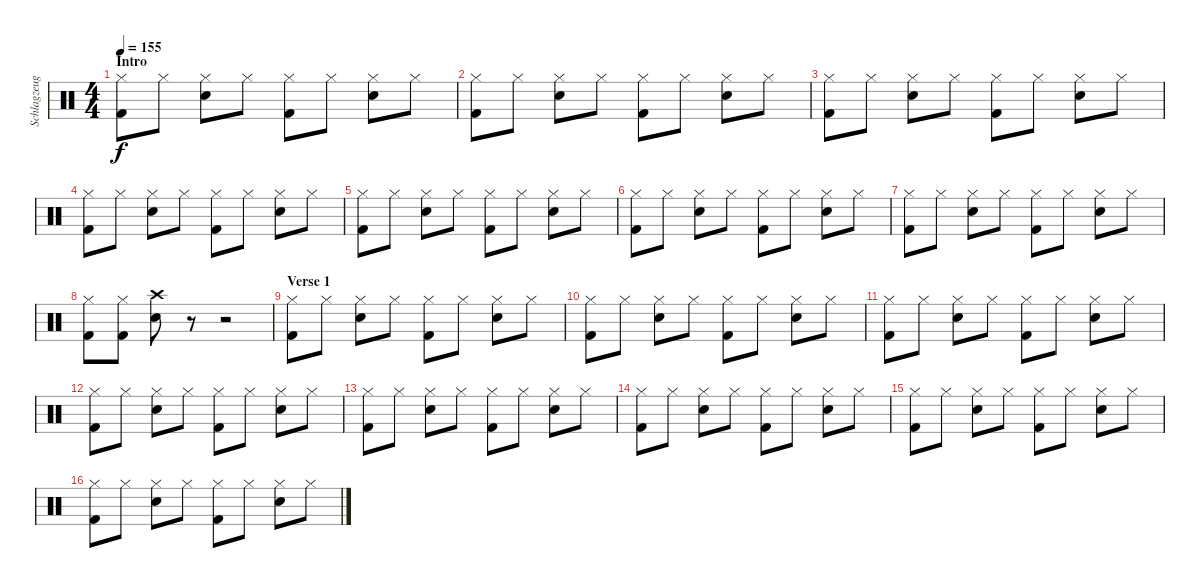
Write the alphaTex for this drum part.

\track ("Schlagzeug - Bela B." "Schlagzeug") {instrument percussion}
\staff {score}
\articulation defaults
\ts (4 4)
\section ("" "Intro")
\tempo 155
\clef neutral
\ks c
("Hi-Hat (closed)" "Kick (hit) 2").8{dy f} "Hi-Hat (closed)".8 ("Hi-Hat (closed)" "Snare (hit) 2").8 "Hi-Hat (closed)".8 ("Hi-Hat (closed)" "Kick (hit) 2").8 "Hi-Hat (closed)".8 ("Hi-Hat (closed)" "Snare (hit) 2").8 "Hi-Hat (closed)".8 |
("Hi-Hat (closed)" "Kick (hit) 2").8 "Hi-Hat (closed)".8 ("Hi-Hat (closed)" "Snare (hit) 2").8 "Hi-Hat (closed)".8 ("Hi-Hat (closed)" "Kick (hit) 2").8 "Hi-Hat (closed)".8 ("Hi-Hat (closed)" "Snare (hit) 2").8 "Hi-Hat (closed)".8 |
("Hi-Hat (closed)" "Kick (hit) 2").8 "Hi-Hat (closed)".8 ("Hi-Hat (closed)" "Snare (hit) 2").8 "Hi-Hat (closed)".8 ("Hi-Hat (closed)" "Kick (hit) 2").8 "Hi-Hat (closed)".8 ("Hi-Hat (closed)" "Snare (hit) 2").8 "Hi-Hat (closed)".8 |
("Hi-Hat (closed)" "Kick (hit) 2").8 "Hi-Hat (closed)".8 ("Hi-Hat (closed)" "Snare (hit) 2").8 "Hi-Hat (closed)".8 ("Hi-Hat (closed)" "Kick (hit) 2").8 "Hi-Hat (closed)".8 ("Hi-Hat (closed)" "Snare (hit) 2").8 "Hi-Hat (closed)".8 |
("Hi-Hat (closed)" "Kick (hit) 2").8 "Hi-Hat (closed)".8 ("Hi-Hat (closed)" "Snare (hit) 2").8 "Hi-Hat (closed)".8 ("Hi-Hat (closed)" "Kick (hit) 2").8 "Hi-Hat (closed)".8 ("Hi-Hat (closed)" "Snare (hit) 2").8 "Hi-Hat (closed)".8 |
("Hi-Hat (closed)" "Kick (hit) 2").8 "Hi-Hat (closed)".8 ("Hi-Hat (closed)" "Snare (hit) 2").8 "Hi-Hat (closed)".8 ("Hi-Hat (closed)" "Kick (hit) 2").8 "Hi-Hat (closed)".8 ("Hi-Hat (closed)" "Snare (hit) 2").8 "Hi-Hat (closed)".8 |
("Hi-Hat (closed)" "Kick (hit) 2").8 "Hi-Hat (closed)".8 ("Hi-Hat (closed)" "Snare (hit) 2").8 "Hi-Hat (closed)".8 ("Hi-Hat (closed)" "Kick (hit) 2").8 "Hi-Hat (closed)".8 ("Hi-Hat (closed)" "Snare (hit) 2").8 "Hi-Hat (closed)".8 |
("Hi-Hat (closed)" "Kick (hit) 2").8 ("Hi-Hat (closed)" "Kick (hit) 2").8 ("Crash high (hit)" "Snare (hit) 2").8 r.8 r.2 |
\section ("" "Verse 1")
("Hi-Hat (closed)" "Kick (hit) 2").8 "Hi-Hat (closed)".8 ("Hi-Hat (closed)" "Snare (hit) 2").8 "Hi-Hat (closed)".8 ("Hi-Hat (closed)" "Kick (hit) 2").8 "Hi-Hat (closed)".8 ("Hi-Hat (closed)" "Snare (hit) 2").8 "Hi-Hat (closed)".8 |
("Hi-Hat (closed)" "Kick (hit) 2").8 "Hi-Hat (closed)".8 ("Hi-Hat (closed)" "Snare (hit) 2").8 "Hi-Hat (closed)".8 ("Hi-Hat (closed)" "Kick (hit) 2").8 "Hi-Hat (closed)".8 ("Hi-Hat (closed)" "Snare (hit) 2").8 "Hi-Hat (closed)".8 |
("Hi-Hat (closed)" "Kick (hit) 2").8 "Hi-Hat (closed)".8 ("Hi-Hat (closed)" "Snare (hit) 2").8 "Hi-Hat (closed)".8 ("Hi-Hat (closed)" "Kick (hit) 2").8 "Hi-Hat (closed)".8 ("Hi-Hat (closed)" "Snare (hit) 2").8 "Hi-Hat (closed)".8 |
("Hi-Hat (closed)" "Kick (hit) 2").8 "Hi-Hat (closed)".8 ("Hi-Hat (closed)" "Snare (hit) 2").8 "Hi-Hat (closed)".8 ("Hi-Hat (closed)" "Kick (hit) 2").8 "Hi-Hat (closed)".8 ("Hi-Hat (closed)" "Snare (hit) 2").8 "Hi-Hat (closed)".8 |
("Hi-Hat (closed)" "Kick (hit) 2").8 "Hi-Hat (closed)".8 ("Hi-Hat (closed)" "Snare (hit) 2").8 "Hi-Hat (closed)".8 ("Hi-Hat (closed)" "Kick (hit) 2").8 "Hi-Hat (closed)".8 ("Hi-Hat (closed)" "Snare (hit) 2").8 "Hi-Hat (closed)".8 |
("Hi-Hat (closed)" "Kick (hit) 2").8 "Hi-Hat (closed)".8 ("Hi-Hat (closed)" "Snare (hit) 2").8 "Hi-Hat (closed)".8 ("Hi-Hat (closed)" "Kick (hit) 2").8 "Hi-Hat (closed)".8 ("Hi-Hat (closed)" "Snare (hit) 2").8 "Hi-Hat (closed)".8 |
("Hi-Hat (closed)" "Kick (hit) 2").8 "Hi-Hat (closed)".8 ("Hi-Hat (closed)" "Snare (hit) 2").8 "Hi-Hat (closed)".8 ("Hi-Hat (closed)" "Kick (hit) 2").8 "Hi-Hat (closed)".8 ("Hi-Hat (closed)" "Snare (hit) 2").8 "Hi-Hat (closed)".8 |
("Hi-Hat (closed)" "Kick (hit) 2").8 "Hi-Hat (closed)".8 ("Hi-Hat (closed)" "Snare (hit) 2").8 "Hi-Hat (closed)".8 ("Hi-Hat (closed)" "Kick (hit) 2").8 "Hi-Hat (closed)".8 ("Hi-Hat (closed)" "Snare (hit) 2").8 "Hi-Hat (closed)".8
